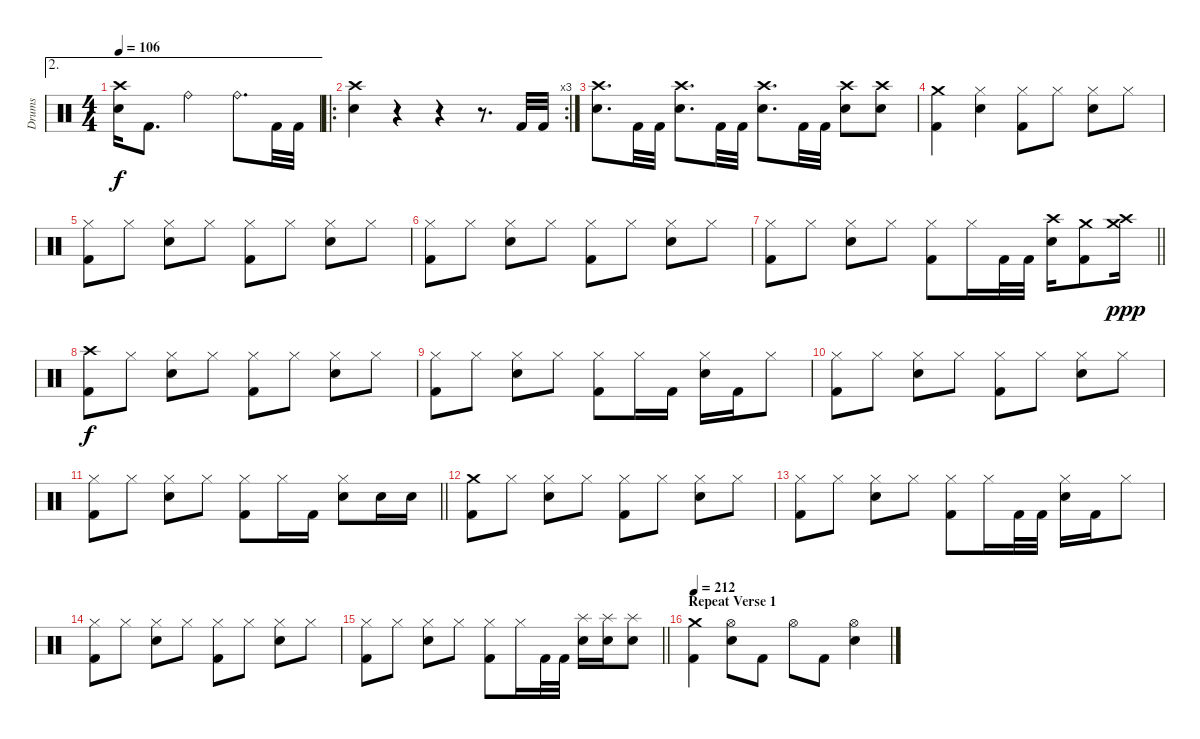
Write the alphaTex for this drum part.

\track ("Drums" "Drums") {instrument percussion}
\staff {score}
\articulation defaults
\ae 2
\ts (4 4)
\tempo 106
\clef neutral
\ks c
("Crash high (hit)" "Electric Snare (hit)").16{dy f} "Kick (hit) 2".8{d} "Ride (bell)".2 "Ride (bell)".8{d} "Kick (hit) 2".32 "Kick (hit) 2".32 |
\ro
\rc 3
("Crash high (hit)" "Electric Snare (hit)").4 r.4 r.4 r.8{d} "Kick (hit) 2".32 "Kick (hit) 2".32 |
("Crash high (hit)" "Electric Snare (hit)").8{d} "Kick (hit) 2".32 "Kick (hit) 2".32 ("Crash high (hit)" "Electric Snare (hit)").8{d} "Kick (hit) 2".32 "Kick (hit) 2".32 ("Crash high (hit)" "Electric Snare (hit)").8{d} "Kick (hit) 2".32 "Kick (hit) 2".32 ("Crash high (hit)" "Electric Snare (hit)").8 ("Crash high (hit)" "Electric Snare (hit)").8 |
("Crash medium (hit)" "Kick (hit) 2").4 ("Hi-Hat (closed)" "Electric Snare (hit)").4 ("Hi-Hat (closed)" "Kick (hit) 2").8 "Hi-Hat (closed)".8 ("Hi-Hat (closed)" "Electric Snare (hit)").8 "Hi-Hat (closed)".8 |
("Hi-Hat (closed)" "Kick (hit) 2").8 "Hi-Hat (closed)".8 ("Hi-Hat (closed)" "Electric Snare (hit)").8 "Hi-Hat (closed)".8 ("Hi-Hat (closed)" "Kick (hit) 2").8 "Hi-Hat (closed)".8 ("Hi-Hat (closed)" "Electric Snare (hit)").8 "Hi-Hat (closed)".8 |
("Hi-Hat (closed)" "Kick (hit) 2").8 "Hi-Hat (closed)".8 ("Hi-Hat (closed)" "Electric Snare (hit)").8 "Hi-Hat (closed)".8 ("Hi-Hat (closed)" "Kick (hit) 2").8 "Hi-Hat (closed)".8 ("Hi-Hat (closed)" "Electric Snare (hit)").8 "Hi-Hat (closed)".8 |
\barLineRight lightlight
("Hi-Hat (closed)" "Kick (hit) 2").8 "Hi-Hat (closed)".8 ("Hi-Hat (closed)" "Electric Snare (hit)").8 "Hi-Hat (closed)".8 ("Hi-Hat (closed)" "Kick (hit) 2").8 "Hi-Hat (closed)".16 "Kick (hit) 2".32 "Kick (hit) 2".32 ("Crash high (hit)" "Electric Snare (hit)").16 ("Crash medium (hit)" "Kick (hit) 2").8 ("Crash medium (hit)" "Crash high (hit)").16{dy ppp} |
\section ("" "")
("Crash high (hit)" "Kick (hit) 2").8{dy f} "Hi-Hat (closed)".8 ("Hi-Hat (closed)" "Electric Snare (hit)").8 "Hi-Hat (closed)".8 ("Hi-Hat (closed)" "Kick (hit) 2").8 "Hi-Hat (closed)".8 ("Hi-Hat (closed)" "Electric Snare (hit)").8 "Hi-Hat (closed)".8 |
("Hi-Hat (closed)" "Kick (hit) 2").8 "Hi-Hat (closed)".8 ("Hi-Hat (closed)" "Electric Snare (hit)").8 "Hi-Hat (closed)".8 ("Hi-Hat (closed)" "Kick (hit) 2").8 "Hi-Hat (closed)".16 "Kick (hit) 2".16 ("Hi-Hat (closed)" "Electric Snare (hit)").16 "Kick (hit) 2".16 "Hi-Hat (closed)".8 |
("Hi-Hat (closed)" "Kick (hit) 2").8 "Hi-Hat (closed)".8 ("Hi-Hat (closed)" "Electric Snare (hit)").8 "Hi-Hat (closed)".8 ("Hi-Hat (closed)" "Kick (hit) 2").8 "Hi-Hat (closed)".8 ("Hi-Hat (closed)" "Electric Snare (hit)").8 "Hi-Hat (closed)".8 |
\barLineRight lightlight
("Hi-Hat (closed)" "Kick (hit) 2").8 "Hi-Hat (closed)".8 ("Hi-Hat (closed)" "Electric Snare (hit)").8 "Hi-Hat (closed)".8 ("Hi-Hat (closed)" "Kick (hit) 2").8 "Hi-Hat (closed)".16 "Kick (hit) 2".16 ("Hi-Hat (closed)" "Electric Snare (hit)").8 "Electric Snare (hit)".16 "Electric Snare (hit)".16 |
\section ("" "")
("Crash medium (hit)" "Kick (hit) 2").8 "Hi-Hat (closed)".8 ("Hi-Hat (closed)" "Electric Snare (hit)").8 "Hi-Hat (closed)".8 ("Hi-Hat (closed)" "Kick (hit) 2").8 "Hi-Hat (closed)".8 ("Hi-Hat (closed)" "Electric Snare (hit)").8 "Hi-Hat (closed)".8 |
("Hi-Hat (closed)" "Kick (hit) 2").8 "Hi-Hat (closed)".8 ("Hi-Hat (closed)" "Electric Snare (hit)").8 "Hi-Hat (closed)".8 ("Hi-Hat (closed)" "Kick (hit) 2").8 "Hi-Hat (closed)".16 "Kick (hit) 2".32 "Kick (hit) 2".32 ("Hi-Hat (closed)" "Electric Snare (hit)").16 "Kick (hit) 2".16 "Hi-Hat (closed)".8 |
("Hi-Hat (closed)" "Kick (hit) 2").8 "Hi-Hat (closed)".8 ("Hi-Hat (closed)" "Electric Snare (hit)").8 "Hi-Hat (closed)".8 ("Hi-Hat (closed)" "Kick (hit) 2").8 "Hi-Hat (closed)".8 ("Hi-Hat (closed)" "Electric Snare (hit)").8 "Hi-Hat (closed)".8 |
\barLineRight lightlight
("Hi-Hat (closed)" "Kick (hit) 2").8 "Hi-Hat (closed)".8 ("Hi-Hat (closed)" "Electric Snare (hit)").8 "Hi-Hat (closed)".8 ("Hi-Hat (closed)" "Kick (hit) 2").8 "Hi-Hat (closed)".16 "Kick (hit) 2".32 "Kick (hit) 2".32 ("Splash (hit)" "Electric Snare (hit)").16 ("Splash (hit)" "Electric Snare (hit)").16 ("Splash (hit)" "Electric Snare (hit)").8 |
\section ("" "Repeat Verse 1")
\tempo 212
("Crash medium (hit)" "Kick (hit) 2").4 ("Hi-Hat (open)" "Electric Snare (hit)").8 "Kick (hit) 2".8 "Hi-Hat (open)".8 "Kick (hit) 2".8 ("Hi-Hat (open)" "Electric Snare (hit)").4
